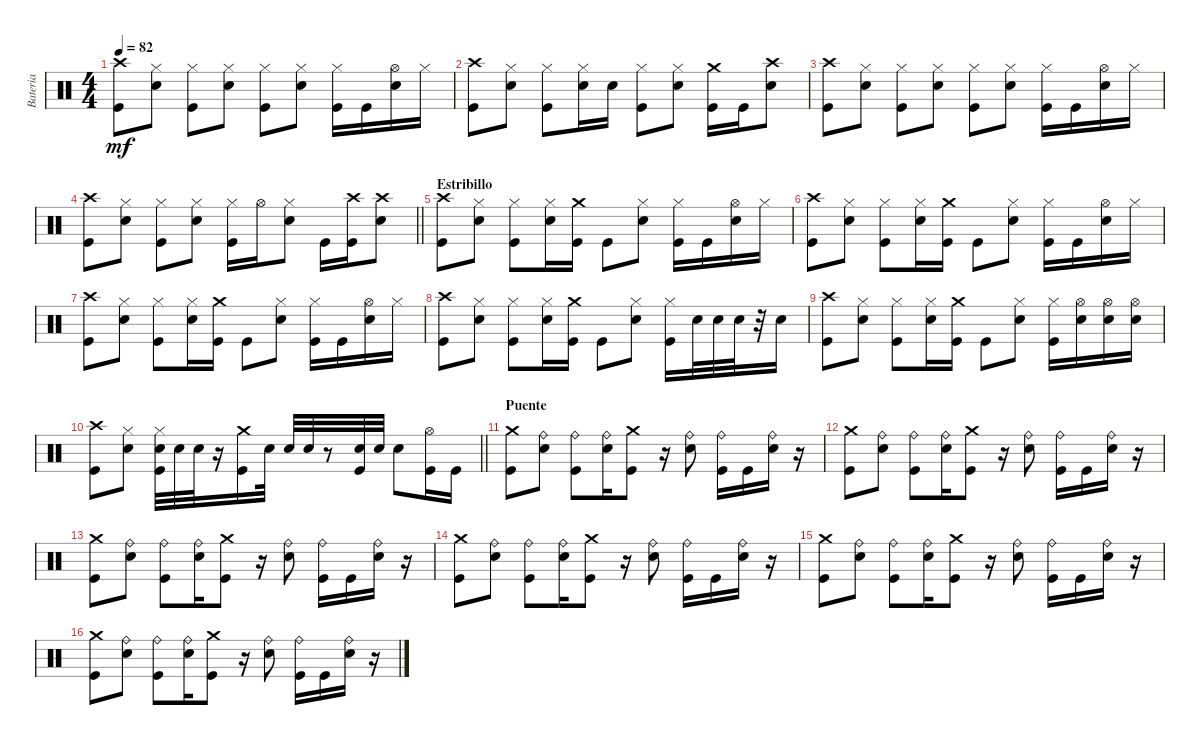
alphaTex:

\track ("Bateria" "Bateria") {instrument percussion}
\staff {score}
\articulation defaults
\ts (4 4)
\tempo 82
\clef neutral
\ks c
("Crash high (hit)" "Kick (hit)").8{dy mf} ("Snare (hit) 2" "Hi-Hat (closed)").8 ("Kick (hit)" "Hi-Hat (closed)").8 ("Hi-Hat (closed)" "Snare (hit) 2").8 ("Kick (hit)" "Hi-Hat (closed)").8 ("Snare (hit) 2" "Hi-Hat (closed)").8 ("Kick (hit)" "Hi-Hat (closed)").16 "Kick (hit)".16 ("Hi-Hat (open)" "Snare (hit) 2").16 "Hi-Hat (closed)".16 |
("Crash high (hit)" "Kick (hit)").8 ("Snare (hit) 2" "Hi-Hat (closed)").8 ("Kick (hit)" "Hi-Hat (closed)").8 ("Hi-Hat (closed)" "Snare (hit) 2").16 "Snare (hit) 2".16 ("Kick (hit)" "Hi-Hat (closed)").8 ("Snare (hit) 2" "Hi-Hat (closed)").8 ("Kick (hit)" "Crash medium (hit)").16 "Kick (hit)".16 ("Snare (hit) 2" "Crash high (hit)").8 |
("Crash high (hit)" "Kick (hit)").8 ("Snare (hit) 2" "Hi-Hat (closed)").8 ("Kick (hit)" "Hi-Hat (closed)").8 ("Hi-Hat (closed)" "Snare (hit) 2").8 ("Kick (hit)" "Hi-Hat (closed)").8 ("Snare (hit) 2" "Hi-Hat (closed)").8 ("Kick (hit)" "Hi-Hat (closed)").16 "Kick (hit)".16 ("Hi-Hat (open)" "Snare (hit) 2").16 "Hi-Hat (closed)".16 |
\barLineRight lightlight
("Crash high (hit)" "Kick (hit)").8 ("Snare (hit) 2" "Hi-Hat (closed)").8 ("Kick (hit)" "Hi-Hat (closed)").8 ("Hi-Hat (closed)" "Snare (hit) 2").8 ("Kick (hit)" "Hi-Hat (closed)").16 "Hi-Hat (open)".16 ("Snare (hit) 2" "Hi-Hat (closed)").8 "Kick (hit)".16 ("Kick (hit)" "Crash high (hit)").16 ("Snare (hit) 2" "Crash high (hit)").8 |
\section ("" "Estribillo")
("Crash high (hit)" "Kick (hit)").8 ("Snare (hit) 2" "Hi-Hat (closed)").8 ("Kick (hit)" "Hi-Hat (closed)").8 ("Hi-Hat (closed)" "Snare (hit) 2").16 ("Kick (hit)" "Crash medium (hit)").16 "Kick (hit)".8 ("Snare (hit) 2" "Hi-Hat (closed)").8 ("Kick (hit)" "Hi-Hat (closed)").16 "Kick (hit)".16 ("Hi-Hat (open)" "Snare (hit) 2").16 "Hi-Hat (closed)".16 |
("Crash high (hit)" "Kick (hit)").8 ("Snare (hit) 2" "Hi-Hat (closed)").8 ("Kick (hit)" "Hi-Hat (closed)").8 ("Hi-Hat (closed)" "Snare (hit) 2").16 ("Kick (hit)" "Crash medium (hit)").16 "Kick (hit)".8 ("Snare (hit) 2" "Hi-Hat (closed)").8 ("Kick (hit)" "Hi-Hat (closed)").16 "Kick (hit)".16 ("Hi-Hat (open)" "Snare (hit) 2").16 "Hi-Hat (closed)".16 |
("Crash high (hit)" "Kick (hit)").8 ("Snare (hit) 2" "Hi-Hat (closed)").8 ("Kick (hit)" "Hi-Hat (closed)").8 ("Hi-Hat (closed)" "Snare (hit) 2").16 ("Kick (hit)" "Crash medium (hit)").16 "Kick (hit)".8 ("Snare (hit) 2" "Hi-Hat (closed)").8 ("Kick (hit)" "Hi-Hat (closed)").16 "Kick (hit)".16 ("Hi-Hat (open)" "Snare (hit) 2").16 "Hi-Hat (closed)".16 |
("Crash high (hit)" "Kick (hit)").8 ("Snare (hit) 2" "Hi-Hat (closed)").8 ("Kick (hit)" "Hi-Hat (closed)").8 ("Hi-Hat (closed)" "Snare (hit) 2").16 ("Kick (hit)" "Crash medium (hit)").16 "Kick (hit)".8 ("Snare (hit) 2" "Hi-Hat (closed)").8 ("Kick (hit)" "Hi-Hat (closed)").16 "Snare (hit) 2".32 "Snare (hit) 2".32 "Snare (hit) 2".32 r.32 "Snare (hit) 2".16 |
("Crash high (hit)" "Kick (hit)").8 ("Snare (hit) 2" "Hi-Hat (closed)").8 ("Kick (hit)" "Hi-Hat (closed)").8 ("Hi-Hat (closed)" "Snare (hit) 2").16 ("Kick (hit)" "Crash medium (hit)").16 "Kick (hit)".8 ("Snare (hit) 2" "Hi-Hat (closed)").8 ("Kick (hit)" "Hi-Hat (closed)").16 ("Snare (hit) 2" "Hi-Hat (open)").16 ("Snare (hit) 2" "Hi-Hat (open)").16 ("Hi-Hat (open)" "Snare (hit) 2").16 |
\barLineRight lightlight
("Crash high (hit)" "Kick (hit)").8 ("Snare (hit) 2" "Hi-Hat (closed)").8 ("Kick (hit)" "Hi-Hat (closed)" "Snare (hit) 2").32 "Snare (hit) 2".32 "Snare (hit) 2".32 r.16 ("Kick (hit)" "Crash medium (hit)").16 "Snare (hit) 2".32 "Snare (hit) 2".32 "Snare (hit) 2".32 r.8 ("Kick (hit)" "Snare (hit) 2").32 "Snare (hit) 2".32 "Snare (hit) 2".8 ("Kick (hit)" "Hi-Hat (open)").16 "Kick (hit)".16 |
\section ("" "Puente")
("Kick (hit)" "Crash medium (hit)").8 ("Snare (hit) 2" "Ride (bell)").8 ("Kick (hit)" "Ride (bell)").8 ("Snare (hit) 2" "Ride (bell)").16 ("Kick (hit)" "Crash medium (hit)").8 r.16 ("Snare (hit) 2" "Ride (bell)").8 ("Kick (hit)" "Ride (bell)").16 "Kick (hit)".16 ("Snare (hit) 2" "Ride (bell)").16 r.16 |
("Kick (hit)" "Crash medium (hit)").8 ("Snare (hit) 2" "Ride (bell)").8 ("Kick (hit)" "Ride (bell)").8 ("Snare (hit) 2" "Ride (bell)").16 ("Kick (hit)" "Crash medium (hit)").8 r.16 ("Snare (hit) 2" "Ride (bell)").8 ("Kick (hit)" "Ride (bell)").16 "Kick (hit)".16 ("Snare (hit) 2" "Ride (bell)").16 r.16 |
("Kick (hit)" "Crash medium (hit)").8 ("Snare (hit) 2" "Ride (bell)").8 ("Kick (hit)" "Ride (bell)").8 ("Snare (hit) 2" "Ride (bell)").16 ("Kick (hit)" "Crash medium (hit)").8 r.16 ("Snare (hit) 2" "Ride (bell)").8 ("Kick (hit)" "Ride (bell)").16 "Kick (hit)".16 ("Snare (hit) 2" "Ride (bell)").16 r.16 |
("Kick (hit)" "Crash medium (hit)").8 ("Snare (hit) 2" "Ride (bell)").8 ("Kick (hit)" "Ride (bell)").8 ("Snare (hit) 2" "Ride (bell)").16 ("Kick (hit)" "Crash medium (hit)").8 r.16 ("Snare (hit) 2" "Ride (bell)").8 ("Kick (hit)" "Ride (bell)").16 "Kick (hit)".16 ("Snare (hit) 2" "Ride (bell)").16 r.16 |
("Kick (hit)" "Crash medium (hit)").8 ("Snare (hit) 2" "Ride (bell)").8 ("Kick (hit)" "Ride (bell)").8 ("Snare (hit) 2" "Ride (bell)").16 ("Kick (hit)" "Crash medium (hit)").8 r.16 ("Snare (hit) 2" "Ride (bell)").8 ("Kick (hit)" "Ride (bell)").16 "Kick (hit)".16 ("Snare (hit) 2" "Ride (bell)").16 r.16 |
("Kick (hit)" "Crash medium (hit)").8 ("Snare (hit) 2" "Ride (bell)").8 ("Kick (hit)" "Ride (bell)").8 ("Snare (hit) 2" "Ride (bell)").16 ("Kick (hit)" "Crash medium (hit)").8 r.16 ("Snare (hit) 2" "Ride (bell)").8 ("Kick (hit)" "Ride (bell)").16 "Kick (hit)".16 ("Snare (hit) 2" "Ride (bell)").16 r.16
